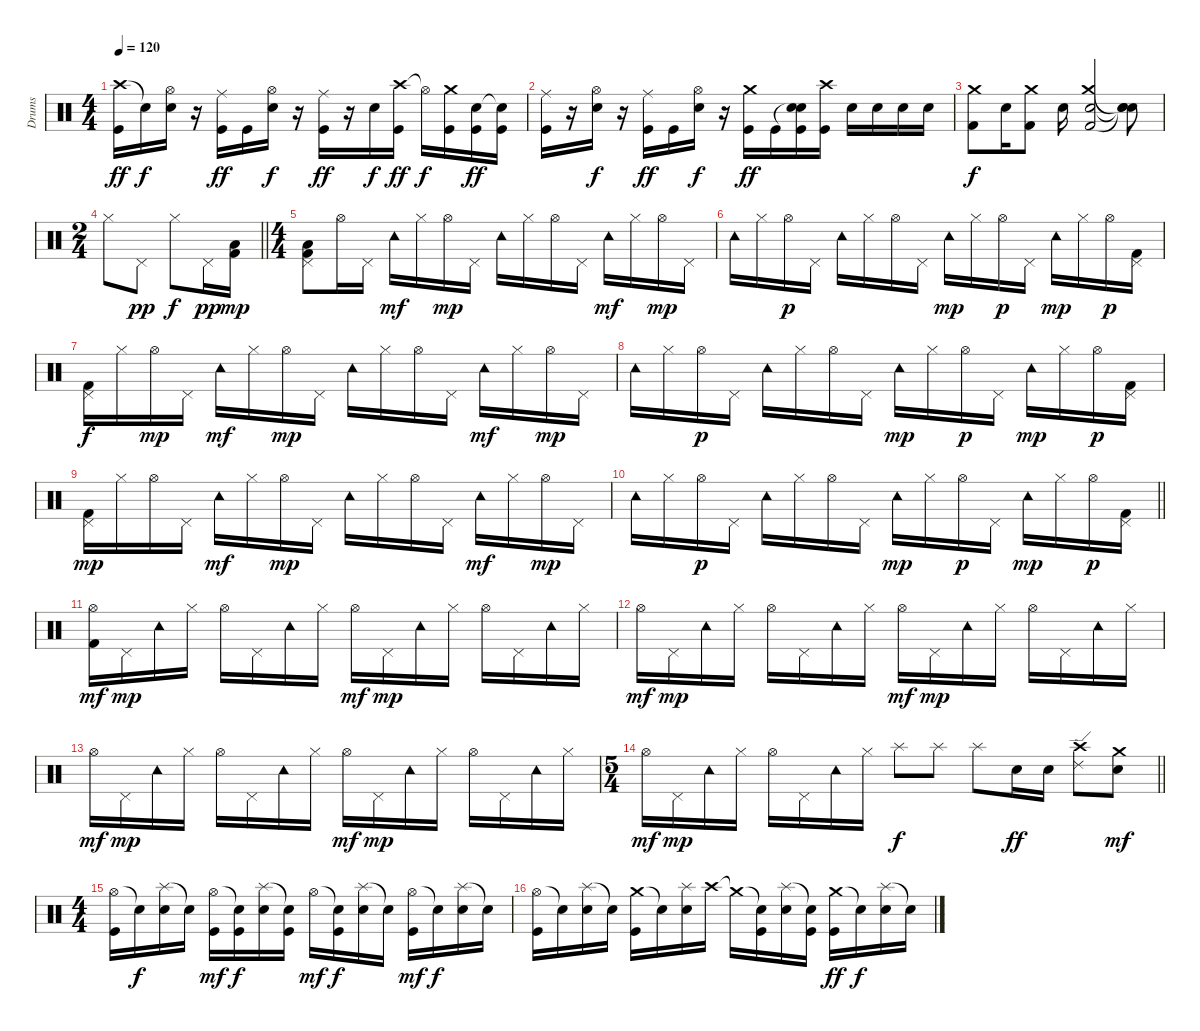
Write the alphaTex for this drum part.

\track ("Drums" "Drums") {instrument percussion}
\staff {score}
\articulation defaults
\ts (4 4)
\tempo 120
\clef neutral
\ks c
("Crash high (hit)" "Kick (hit)").16{dy ff} "Snare (hit)"{t}.16{dy f} ("Hi-Hat (open)" "Electric Snare (hit)").16 r.16 ("Ride (middle)" "Kick (hit)").16{dy ff} "Kick (hit)".16 ("Hi-Hat (open)" "Electric Snare (hit)").16{dy f} r.16 ("Ride (middle)" "Kick (hit)").16{dy ff} r.16 "Electric Snare (hit)".16{dy f} ("Crash high (hit)" "Kick (hit)").16{dy ff} "Hi-Hat (open)"{t}.16{dy f} ("Crash medium (hit)" "Kick (hit)").16 ("Electric Snare (hit)" "Kick (hit)").16{dy ff} ("Snare (hit)"{t} "Kick (hit)").16 |
("Ride (middle)" "Kick (hit)").16 r.16 ("Hi-Hat (open)" "Electric Snare (hit)").16{dy f} r.16 ("Ride (middle)" "Kick (hit)").16{dy ff} "Kick (hit)".16 ("Hi-Hat (open)" "Electric Snare (hit)").16{dy f} r.16 ("Crash medium (hit)" "Kick (hit)").16{dy ff} "Kick (hit)".16 ("Snare (hit)"{t} "Electric Snare (hit)" "Kick (hit)").16 ("Crash high (hit)" "Kick (hit)").16 "Electric Snare (hit)".16 "Electric Snare (hit)".16 "Electric Snare (hit)".16 "Electric Snare (hit)".16 |
("Crash medium (hit)" "Kick (hit) 2").8{dy f} "Snare (hit) 2".16 ("Crash medium (hit)" "Kick (hit) 2").8 "Snare (hit) 2".16 ("Crash medium (hit)" "Snare (hit) 2" "Kick (hit) 2").2 ("Snare (hit)"{t} "Snare (hit)"{t} "Snare (hit)"{t}).8 |
\ts (2 4)
\barLineRight lightlight "Hi-Hat (closed)".8 "Pedal Hi-Hat (hit)".8{dy pp} "Hi-Hat (closed)".8{dy f} "Pedal Hi-Hat (hit)".16{dy pp}
("Low Floor Tom (hit)" "Kick (hit) 2").16{dy mp} |
\ts (4 4)
("Pedal Hi-Hat (hit)" "Low Floor Tom (hit)" "Kick (hit) 2").8 "Hi-Hat (open)".16 "Pedal Hi-Hat (hit)".16 "Tambourine (hit)".16{dy mf} "Hi-Hat (closed)".16 "Hi-Hat (open)".16{dy mp} "Pedal Hi-Hat (hit)".16 "Tambourine (hit)".16 "Hi-Hat (closed)".16 "Hi-Hat (open)".16 "Pedal Hi-Hat (hit)".16 "Tambourine (hit)".16{dy mf} "Hi-Hat (closed)".16 "Hi-Hat (open)".16{dy mp} "Pedal Hi-Hat (hit)".16 |
"Tambourine (hit)".16 "Hi-Hat (closed)".16 "Hi-Hat (open)".16{dy p} "Pedal Hi-Hat (hit)".16 "Tambourine (hit)".16 "Hi-Hat (closed)".16 "Hi-Hat (open)".16 "Pedal Hi-Hat (hit)".16 "Tambourine (hit)".16{dy mp} "Hi-Hat (closed)".16 "Hi-Hat (open)".16{dy p} "Pedal Hi-Hat (hit)".16 "Tambourine (hit)".16{dy mp} "Hi-Hat (closed)".16 "Hi-Hat (open)".16{dy p} ("Pedal Hi-Hat (hit)" "Kick (hit) 2").16 |
("Pedal Hi-Hat (hit)" "Kick (hit) 2").16{dy f} "Hi-Hat (closed)".16 "Hi-Hat (open)".16{dy mp} "Pedal Hi-Hat (hit)".16 "Tambourine (hit)".16{dy mf} "Hi-Hat (closed)".16 "Hi-Hat (open)".16{dy mp} "Pedal Hi-Hat (hit)".16 "Tambourine (hit)".16 "Hi-Hat (closed)".16 "Hi-Hat (open)".16 "Pedal Hi-Hat (hit)".16 "Tambourine (hit)".16{dy mf} "Hi-Hat (closed)".16 "Hi-Hat (open)".16{dy mp} "Pedal Hi-Hat (hit)".16 |
"Tambourine (hit)".16 "Hi-Hat (closed)".16 "Hi-Hat (open)".16{dy p} "Pedal Hi-Hat (hit)".16 "Tambourine (hit)".16 "Hi-Hat (closed)".16 "Hi-Hat (open)".16 "Pedal Hi-Hat (hit)".16 "Tambourine (hit)".16{dy mp} "Hi-Hat (closed)".16 "Hi-Hat (open)".16{dy p} "Pedal Hi-Hat (hit)".16 "Tambourine (hit)".16{dy mp} "Hi-Hat (closed)".16 "Hi-Hat (open)".16{dy p} ("Pedal Hi-Hat (hit)" "Kick (hit) 2").16 |
("Pedal Hi-Hat (hit)" "Kick (hit) 2").16{dy mp} "Hi-Hat (closed)".16 "Hi-Hat (open)".16 "Pedal Hi-Hat (hit)".16 "Tambourine (hit)".16{dy mf} "Hi-Hat (closed)".16 "Hi-Hat (open)".16{dy mp} "Pedal Hi-Hat (hit)".16 "Tambourine (hit)".16 "Hi-Hat (closed)".16 "Hi-Hat (open)".16 "Pedal Hi-Hat (hit)".16 "Tambourine (hit)".16{dy mf} "Hi-Hat (closed)".16 "Hi-Hat (open)".16{dy mp} "Pedal Hi-Hat (hit)".16 |
\barLineRight lightlight "Tambourine (hit)".16 "Hi-Hat (closed)".16 "Hi-Hat (open)".16{dy p} "Pedal Hi-Hat (hit)".16 "Tambourine (hit)".16 "Hi-Hat (closed)".16 "Hi-Hat (open)".16 "Pedal Hi-Hat (hit)".16 "Tambourine (hit)".16{dy mp} "Hi-Hat (closed)".16 "Hi-Hat (open)".16{dy p} "Pedal Hi-Hat (hit)".16 "Tambourine (hit)".16{dy mp} "Hi-Hat (closed)".16 "Hi-Hat (open)".16{dy p}
("Pedal Hi-Hat (hit)" "Kick (hit) 2").16 |
\section ("" "")
("Hi-Hat (open)" "Kick (hit) 2").16{dy mf} "Pedal Hi-Hat (hit)".16{dy mp} "Tambourine (hit)".16 "Hi-Hat (closed)".16 "Hi-Hat (open)".16 "Pedal Hi-Hat (hit)".16 "Tambourine (hit)".16 "Hi-Hat (closed)".16 "Hi-Hat (open)".16{dy mf} "Pedal Hi-Hat (hit)".16{dy mp} "Tambourine (hit)".16 "Hi-Hat (closed)".16 "Hi-Hat (open)".16 "Pedal Hi-Hat (hit)".16 "Tambourine (hit)".16 "Hi-Hat (closed)".16 |
"Hi-Hat (open)".16{dy mf} "Pedal Hi-Hat (hit)".16{dy mp} "Tambourine (hit)".16 "Hi-Hat (closed)".16 "Hi-Hat (open)".16 "Pedal Hi-Hat (hit)".16 "Tambourine (hit)".16 "Hi-Hat (closed)".16 "Hi-Hat (open)".16{dy mf} "Pedal Hi-Hat (hit)".16{dy mp} "Tambourine (hit)".16 "Hi-Hat (closed)".16 "Hi-Hat (open)".16 "Pedal Hi-Hat (hit)".16 "Tambourine (hit)".16 "Hi-Hat (closed)".16 |
"Hi-Hat (open)".16{dy mf} "Pedal Hi-Hat (hit)".16{dy mp} "Tambourine (hit)".16 "Hi-Hat (closed)".16 "Hi-Hat (open)".16 "Pedal Hi-Hat (hit)".16 "Tambourine (hit)".16 "Hi-Hat (closed)".16 "Hi-Hat (open)".16{dy mf} "Pedal Hi-Hat (hit)".16{dy mp} "Tambourine (hit)".16 "Hi-Hat (closed)".16 "Hi-Hat (open)".16 "Pedal Hi-Hat (hit)".16 "Tambourine (hit)".16 "Hi-Hat (closed)".16 |
\ts (5 4)
\barLineRight lightlight "Hi-Hat (open)".16{dy mf} "Pedal Hi-Hat (hit)".16{dy mp} "Tambourine (hit)".16 "Hi-Hat (closed)".16 "Hi-Hat (open)".16 "Pedal Hi-Hat (hit)".16 "Tambourine (hit)".16 "Hi-Hat (closed)".16 "Splash (hit)".8{dy f} "Splash (hit)".8 "Splash (hit)".8 "Electric Snare (hit)".16{dy ff} "Electric Snare (hit)".16
("Ride (edge) 2" "Crash high (hit)").8 ("Crash medium (hit)" "Electric Snare (hit)").8{dy mf} |
\ts (4 4)
("Hi-Hat (open)" "Kick (hit)").16 "Snare (hit)"{t}.16{dy f} ("Splash (hit)" "Electric Snare (hit)").16 "Snare (hit)"{t}.16 ("Hi-Hat (open)" "Kick (hit)").16{dy mf} ("Snare (hit)"{t} "Kick (hit)").16{dy f} ("Splash (hit)" "Electric Snare (hit)").16 ("Snare (hit)"{t} "Kick (hit)").16 "Hi-Hat (open)".16{dy mf} ("Snare (hit)"{t} "Kick (hit)").16{dy f} ("Splash (hit)" "Electric Snare (hit)").16 "Snare (hit)"{t}.16 ("Hi-Hat (open)" "Kick (hit)").16{dy mf} "Snare (hit)"{t}.16{dy f} ("Splash (hit)" "Electric Snare (hit)").16 "Snare (hit)"{t}.16 |
("Hi-Hat (open)" "Kick (hit)").16 "Snare (hit)"{t}.16 ("Splash (hit)" "Electric Snare (hit)").16 "Snare (hit)"{t}.16 ("Crash medium (hit)" "Kick (hit)").16 "Snare (hit)"{t}.16 ("Splash (hit)" "Electric Snare (hit)").16 "Crash high (hit)".16 "Crash medium (hit)"{t}.16 ("Snare (hit)"{t} "Kick (hit)").16 ("Splash (hit)" "Electric Snare (hit)").16 ("Snare (hit)"{t} "Kick (hit)").16 ("Crash medium (hit)" "Kick (hit)").16{dy ff} "Snare (hit)"{t}.16{dy f} ("Splash (hit)" "Electric Snare (hit)").16 "Snare (hit)"{t}.16
